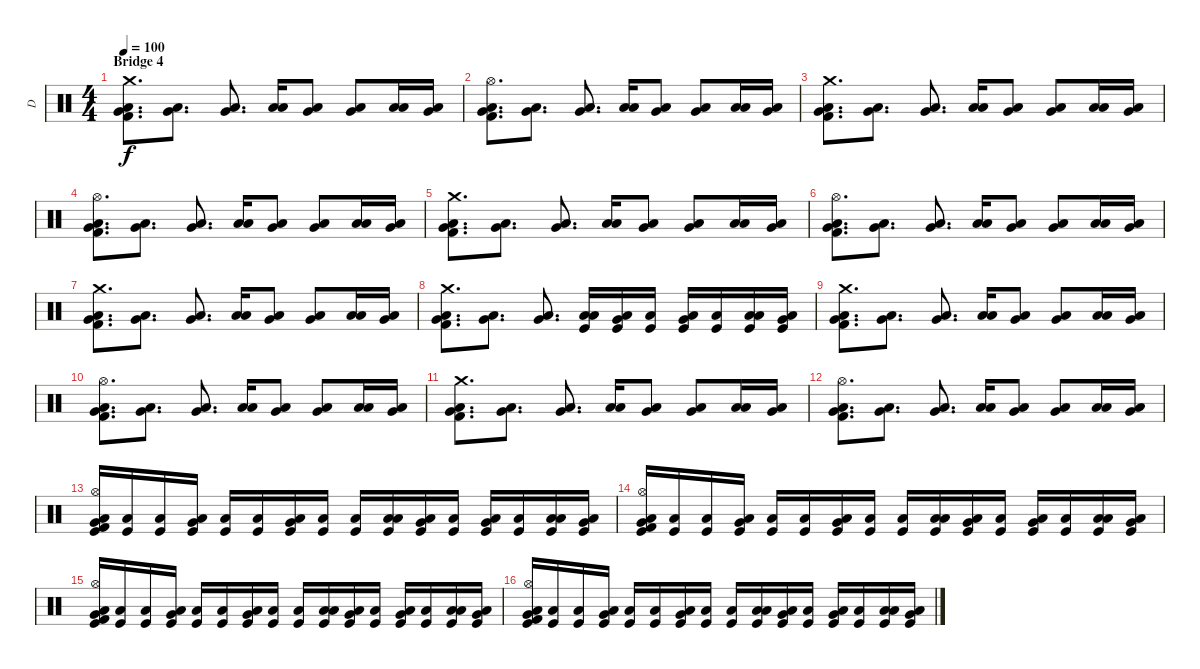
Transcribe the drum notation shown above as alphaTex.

\track ("D" "D") {instrument percussion}
\staff {score}
\articulation defaults
\ts (4 4)
\section ("" "Bridge 4")
\tempo 100
\clef neutral
\ks c
("Crash medium (hit)" "Kick (hit) 2" "Very Low Tom (hit)" "Low Floor Tom (hit)").8{d dy f} ("Very Low Tom (hit)" "Low Floor Tom (hit)").8{d} ("Very Low Tom (hit)" "Low Floor Tom (hit)").8{d} ("Low Tom (hit)" "Low Floor Tom (hit)").16 ("Very Low Tom (hit)" "Low Floor Tom (hit)").8 ("Very Low Tom (hit)" "Low Floor Tom (hit)").8 ("Low Tom (hit)" "Low Floor Tom (hit)").16 ("Very Low Tom (hit)" "Low Floor Tom (hit)").16 |
("Hi-Hat (open)" "Kick (hit) 2" "Very Low Tom (hit)" "Low Floor Tom (hit)").8{d} ("Very Low Tom (hit)" "Low Floor Tom (hit)").8{d} ("Very Low Tom (hit)" "Low Floor Tom (hit)").8{d} ("Low Tom (hit)" "Low Floor Tom (hit)").16 ("Very Low Tom (hit)" "Low Floor Tom (hit)").8 ("Very Low Tom (hit)" "Low Floor Tom (hit)").8 ("Low Tom (hit)" "Low Floor Tom (hit)").16 ("Very Low Tom (hit)" "Low Floor Tom (hit)").16 |
("Crash medium (hit)" "Kick (hit) 2" "Very Low Tom (hit)" "Low Floor Tom (hit)").8{d} ("Very Low Tom (hit)" "Low Floor Tom (hit)").8{d} ("Very Low Tom (hit)" "Low Floor Tom (hit)").8{d} ("Low Tom (hit)" "Low Floor Tom (hit)").16 ("Very Low Tom (hit)" "Low Floor Tom (hit)").8 ("Very Low Tom (hit)" "Low Floor Tom (hit)").8 ("Low Tom (hit)" "Low Floor Tom (hit)").16 ("Very Low Tom (hit)" "Low Floor Tom (hit)").16 |
("Hi-Hat (open)" "Kick (hit) 2" "Very Low Tom (hit)" "Low Floor Tom (hit)").8{d} ("Very Low Tom (hit)" "Low Floor Tom (hit)").8{d} ("Very Low Tom (hit)" "Low Floor Tom (hit)").8{d} ("Low Tom (hit)" "Low Floor Tom (hit)").16 ("Very Low Tom (hit)" "Low Floor Tom (hit)").8 ("Very Low Tom (hit)" "Low Floor Tom (hit)").8 ("Low Tom (hit)" "Low Floor Tom (hit)").16 ("Very Low Tom (hit)" "Low Floor Tom (hit)").16 |
("Crash medium (hit)" "Kick (hit) 2" "Very Low Tom (hit)" "Low Floor Tom (hit)").8{d} ("Very Low Tom (hit)" "Low Floor Tom (hit)").8{d} ("Very Low Tom (hit)" "Low Floor Tom (hit)").8{d} ("Low Tom (hit)" "Low Floor Tom (hit)").16 ("Very Low Tom (hit)" "Low Floor Tom (hit)").8 ("Very Low Tom (hit)" "Low Floor Tom (hit)").8 ("Low Tom (hit)" "Low Floor Tom (hit)").16 ("Very Low Tom (hit)" "Low Floor Tom (hit)").16 |
("Hi-Hat (open)" "Kick (hit) 2" "Very Low Tom (hit)" "Low Floor Tom (hit)").8{d} ("Very Low Tom (hit)" "Low Floor Tom (hit)").8{d} ("Very Low Tom (hit)" "Low Floor Tom (hit)").8{d} ("Low Tom (hit)" "Low Floor Tom (hit)").16 ("Very Low Tom (hit)" "Low Floor Tom (hit)").8 ("Very Low Tom (hit)" "Low Floor Tom (hit)").8 ("Low Tom (hit)" "Low Floor Tom (hit)").16 ("Very Low Tom (hit)" "Low Floor Tom (hit)").16 |
("Crash medium (hit)" "Kick (hit) 2" "Very Low Tom (hit)" "Low Floor Tom (hit)").8{d} ("Very Low Tom (hit)" "Low Floor Tom (hit)").8{d} ("Very Low Tom (hit)" "Low Floor Tom (hit)").8{d} ("Low Tom (hit)" "Low Floor Tom (hit)").16 ("Very Low Tom (hit)" "Low Floor Tom (hit)").8 ("Very Low Tom (hit)" "Low Floor Tom (hit)").8 ("Low Tom (hit)" "Low Floor Tom (hit)").16 ("Very Low Tom (hit)" "Low Floor Tom (hit)").16 |
("Crash medium (hit)" "Kick (hit) 2" "Very Low Tom (hit)" "Low Floor Tom (hit)").8{d} ("Very Low Tom (hit)" "Low Floor Tom (hit)").8{d} ("Very Low Tom (hit)" "Low Floor Tom (hit)").8{d} ("Low Tom (hit)" "Kick (hit)" "Low Floor Tom (hit)").16 ("Very Low Tom (hit)" "Kick (hit)" "Low Floor Tom (hit)").16 ("Kick (hit)" "Low Floor Tom (hit)").16 ("Very Low Tom (hit)" "Kick (hit)" "Low Floor Tom (hit)").16 ("Kick (hit)" "Low Floor Tom (hit)").16 ("Low Tom (hit)" "Kick (hit)" "Low Floor Tom (hit)").16 ("Very Low Tom (hit)" "Kick (hit)" "Low Floor Tom (hit)").16 |
("Crash medium (hit)" "Kick (hit) 2" "Very Low Tom (hit)" "Low Floor Tom (hit)").8{d} ("Very Low Tom (hit)" "Low Floor Tom (hit)").8{d} ("Very Low Tom (hit)" "Low Floor Tom (hit)").8{d} ("Low Tom (hit)" "Low Floor Tom (hit)").16 ("Very Low Tom (hit)" "Low Floor Tom (hit)").8 ("Very Low Tom (hit)" "Low Floor Tom (hit)").8 ("Low Tom (hit)" "Low Floor Tom (hit)").16 ("Very Low Tom (hit)" "Low Floor Tom (hit)").16 |
("Hi-Hat (open)" "Kick (hit) 2" "Very Low Tom (hit)" "Low Floor Tom (hit)").8{d} ("Very Low Tom (hit)" "Low Floor Tom (hit)").8{d} ("Very Low Tom (hit)" "Low Floor Tom (hit)").8{d} ("Low Tom (hit)" "Low Floor Tom (hit)").16 ("Very Low Tom (hit)" "Low Floor Tom (hit)").8 ("Very Low Tom (hit)" "Low Floor Tom (hit)").8 ("Low Tom (hit)" "Low Floor Tom (hit)").16 ("Very Low Tom (hit)" "Low Floor Tom (hit)").16 |
("Crash medium (hit)" "Kick (hit) 2" "Very Low Tom (hit)" "Low Floor Tom (hit)").8{d} ("Very Low Tom (hit)" "Low Floor Tom (hit)").8{d} ("Very Low Tom (hit)" "Low Floor Tom (hit)").8{d} ("Low Tom (hit)" "Low Floor Tom (hit)").16 ("Very Low Tom (hit)" "Low Floor Tom (hit)").8 ("Very Low Tom (hit)" "Low Floor Tom (hit)").8 ("Low Tom (hit)" "Low Floor Tom (hit)").16 ("Very Low Tom (hit)" "Low Floor Tom (hit)").16 |
("Hi-Hat (open)" "Kick (hit) 2" "Very Low Tom (hit)" "Low Floor Tom (hit)").8{d} ("Very Low Tom (hit)" "Low Floor Tom (hit)").8{d} ("Very Low Tom (hit)" "Low Floor Tom (hit)").8{d} ("Low Tom (hit)" "Low Floor Tom (hit)").16 ("Very Low Tom (hit)" "Low Floor Tom (hit)").8 ("Very Low Tom (hit)" "Low Floor Tom (hit)").8 ("Low Tom (hit)" "Low Floor Tom (hit)").16 ("Very Low Tom (hit)" "Low Floor Tom (hit)").16 |
("Hi-Hat (open)" "Very Low Tom (hit)" "Kick (hit) 2" "Kick (hit)" "Low Floor Tom (hit)").16 ("Kick (hit)" "Low Floor Tom (hit)").16 ("Kick (hit)" "Low Floor Tom (hit)").16 ("Very Low Tom (hit)" "Kick (hit)" "Low Floor Tom (hit)").16 ("Kick (hit)" "Low Floor Tom (hit)").16 ("Kick (hit)" "Low Floor Tom (hit)").16 ("Very Low Tom (hit)" "Kick (hit)" "Low Floor Tom (hit)").16 ("Kick (hit)" "Low Floor Tom (hit)").16 ("Kick (hit)" "Low Floor Tom (hit)").16 ("Low Tom (hit)" "Kick (hit)" "Low Floor Tom (hit)").16 ("Very Low Tom (hit)" "Kick (hit)" "Low Floor Tom (hit)").16 ("Kick (hit)" "Low Floor Tom (hit)").16 ("Very Low Tom (hit)" "Kick (hit)" "Low Floor Tom (hit)").16 ("Kick (hit)" "Low Floor Tom (hit)").16 ("Low Tom (hit)" "Kick (hit)" "Low Floor Tom (hit)").16 ("Very Low Tom (hit)" "Kick (hit)" "Low Floor Tom (hit)").16 |
("Hi-Hat (open)" "Very Low Tom (hit)" "Kick (hit) 2" "Kick (hit)" "Low Floor Tom (hit)").16 ("Kick (hit)" "Low Floor Tom (hit)").16 ("Kick (hit)" "Low Floor Tom (hit)").16 ("Very Low Tom (hit)" "Kick (hit)" "Low Floor Tom (hit)").16 ("Kick (hit)" "Low Floor Tom (hit)").16 ("Kick (hit)" "Low Floor Tom (hit)").16 ("Very Low Tom (hit)" "Kick (hit)" "Low Floor Tom (hit)").16 ("Kick (hit)" "Low Floor Tom (hit)").16 ("Kick (hit)" "Low Floor Tom (hit)").16 ("Low Tom (hit)" "Kick (hit)" "Low Floor Tom (hit)").16 ("Very Low Tom (hit)" "Kick (hit)" "Low Floor Tom (hit)").16 ("Kick (hit)" "Low Floor Tom (hit)").16 ("Very Low Tom (hit)" "Kick (hit)" "Low Floor Tom (hit)").16 ("Kick (hit)" "Low Floor Tom (hit)").16 ("Low Tom (hit)" "Kick (hit)" "Low Floor Tom (hit)").16 ("Very Low Tom (hit)" "Kick (hit)" "Low Floor Tom (hit)").16 |
("Hi-Hat (open)" "Very Low Tom (hit)" "Kick (hit) 2" "Kick (hit)" "Low Floor Tom (hit)").16 ("Kick (hit)" "Low Floor Tom (hit)").16 ("Kick (hit)" "Low Floor Tom (hit)").16 ("Very Low Tom (hit)" "Kick (hit)" "Low Floor Tom (hit)").16 ("Kick (hit)" "Low Floor Tom (hit)").16 ("Kick (hit)" "Low Floor Tom (hit)").16 ("Very Low Tom (hit)" "Kick (hit)" "Low Floor Tom (hit)").16 ("Kick (hit)" "Low Floor Tom (hit)").16 ("Kick (hit)" "Low Floor Tom (hit)").16 ("Low Tom (hit)" "Kick (hit)" "Low Floor Tom (hit)").16 ("Very Low Tom (hit)" "Kick (hit)" "Low Floor Tom (hit)").16 ("Kick (hit)" "Low Floor Tom (hit)").16 ("Very Low Tom (hit)" "Kick (hit)" "Low Floor Tom (hit)").16 ("Kick (hit)" "Low Floor Tom (hit)").16 ("Low Tom (hit)" "Kick (hit)" "Low Floor Tom (hit)").16 ("Very Low Tom (hit)" "Kick (hit)" "Low Floor Tom (hit)").16 |
("Hi-Hat (open)" "Very Low Tom (hit)" "Kick (hit) 2" "Kick (hit)" "Low Floor Tom (hit)").16 ("Kick (hit)" "Low Floor Tom (hit)").16 ("Kick (hit)" "Low Floor Tom (hit)").16 ("Very Low Tom (hit)" "Kick (hit)" "Low Floor Tom (hit)").16 ("Kick (hit)" "Low Floor Tom (hit)").16 ("Kick (hit)" "Low Floor Tom (hit)").16 ("Very Low Tom (hit)" "Kick (hit)" "Low Floor Tom (hit)").16 ("Kick (hit)" "Low Floor Tom (hit)").16 ("Kick (hit)" "Low Floor Tom (hit)").16 ("Low Tom (hit)" "Kick (hit)" "Low Floor Tom (hit)").16 ("Very Low Tom (hit)" "Kick (hit)" "Low Floor Tom (hit)").16 ("Kick (hit)" "Low Floor Tom (hit)").16 ("Very Low Tom (hit)" "Kick (hit)" "Low Floor Tom (hit)").16 ("Kick (hit)" "Low Floor Tom (hit)").16 ("Low Tom (hit)" "Kick (hit)" "Low Floor Tom (hit)").16 ("Very Low Tom (hit)" "Kick (hit)" "Low Floor Tom (hit)").16
